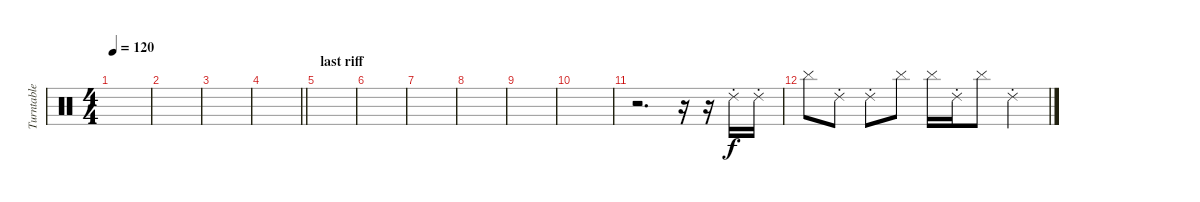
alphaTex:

\track ("Turntable" "Turntable") {instrument percussion}
\staff {score}
\articulation defaults
\ts (4 4)
\tempo 120
\clef neutral
\ks c
|
|
|
\barLineRight lightlight
|
\section ("" "last riff")
|
|
|
|
|
|
r.2{d} r.16 r.16 "Ride (choke) 2".16 "Ride (choke) 2".16 |
"Cymbal (hit)".8 "Ride (choke) 2".8 "Ride (choke) 2".8 "Cymbal (hit)".8 "Cymbal (hit)".16 "Ride (choke) 2".16 "Cymbal (hit)".8 "Ride (choke) 2".4
